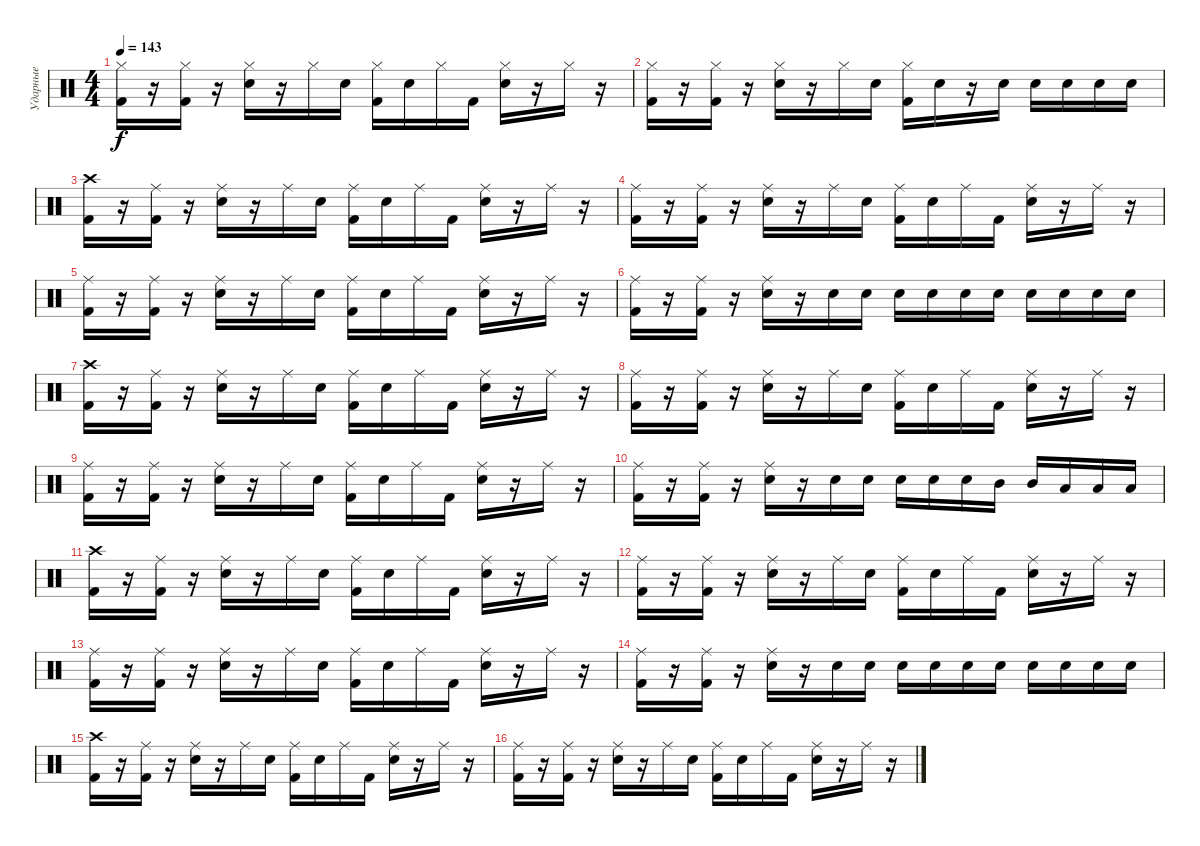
\track ("Ударные" "Ударные") {instrument percussion}
\staff {score}
\articulation defaults
\ts (4 4)
\tempo 143
\clef neutral
\ks c
("Kick (hit) 2" "Hi-Hat (closed)").16{dy f} r.16 ("Kick (hit) 2" "Hi-Hat (closed)").16 r.16 ("Electric Snare (hit)" "Hi-Hat (closed)").16 r.16 "Hi-Hat (closed)".16 "Electric Snare (hit)".16 ("Kick (hit) 2" "Hi-Hat (closed)").16 "Electric Snare (hit)".16 "Hi-Hat (closed)".16 "Kick (hit) 2".16 ("Electric Snare (hit)" "Hi-Hat (closed)").16 r.16 "Hi-Hat (closed)".16 r.16 |
("Kick (hit) 2" "Hi-Hat (closed)").16 r.16 ("Kick (hit) 2" "Hi-Hat (closed)").16 r.16 ("Electric Snare (hit)" "Hi-Hat (closed)").16 r.16 "Hi-Hat (closed)".16 "Electric Snare (hit)".16 ("Kick (hit) 2" "Hi-Hat (closed)").16 "Electric Snare (hit)".16 r.16 "Electric Snare (hit)".16 "Electric Snare (hit)".16 "Electric Snare (hit)".16 "Electric Snare (hit)".16 "Electric Snare (hit)".16 |
("Kick (hit) 2" "Crash high (hit)").16 r.16 ("Kick (hit) 2" "Ride (middle)").16 r.16 ("Electric Snare (hit)" "Ride (middle)").16 r.16 "Ride (middle)".16 "Electric Snare (hit)".16 ("Kick (hit) 2" "Ride (middle)").16 "Electric Snare (hit)".16 "Ride (middle)".16 "Kick (hit) 2".16 ("Electric Snare (hit)" "Ride (middle)").16 r.16 "Ride (middle)".16 r.16 |
("Kick (hit) 2" "Ride (middle)").16 r.16 ("Kick (hit) 2" "Ride (middle)").16 r.16 ("Electric Snare (hit)" "Ride (middle)").16 r.16 "Ride (middle)".16 "Electric Snare (hit)".16 ("Kick (hit) 2" "Ride (middle)").16 "Electric Snare (hit)".16 "Ride (middle)".16 "Kick (hit) 2".16 ("Electric Snare (hit)" "Ride (middle)").16 r.16 "Ride (middle)".16 r.16 |
("Kick (hit) 2" "Ride (middle)").16 r.16 ("Kick (hit) 2" "Ride (middle)").16 r.16 ("Electric Snare (hit)" "Ride (middle)").16 r.16 "Ride (middle)".16 "Electric Snare (hit)".16 ("Kick (hit) 2" "Ride (middle)").16 "Electric Snare (hit)".16 "Ride (middle)".16 "Kick (hit) 2".16 ("Electric Snare (hit)" "Ride (middle)").16 r.16 "Ride (middle)".16 r.16 |
("Kick (hit) 2" "Ride (middle)").16 r.16 ("Kick (hit) 2" "Ride (middle)").16 r.16 ("Electric Snare (hit)" "Ride (middle)").16 r.16 "Electric Snare (hit)".16 "Electric Snare (hit)".16 "Electric Snare (hit)".16 "Electric Snare (hit)".16 "Electric Snare (hit)".16 "Electric Snare (hit)".16 "Electric Snare (hit)".16 "Electric Snare (hit)".16 "Electric Snare (hit)".16 "Electric Snare (hit)".16 |
("Kick (hit) 2" "Crash high (hit)").16 r.16 ("Kick (hit) 2" "Ride (middle)").16 r.16 ("Electric Snare (hit)" "Ride (middle)").16 r.16 "Ride (middle)".16 "Electric Snare (hit)".16 ("Kick (hit) 2" "Ride (middle)").16 "Electric Snare (hit)".16 "Ride (middle)".16 "Kick (hit) 2".16 ("Electric Snare (hit)" "Ride (middle)").16 r.16 "Ride (middle)".16 r.16 |
("Kick (hit) 2" "Ride (middle)").16 r.16 ("Kick (hit) 2" "Ride (middle)").16 r.16 ("Electric Snare (hit)" "Ride (middle)").16 r.16 "Ride (middle)".16 "Electric Snare (hit)".16 ("Kick (hit) 2" "Ride (middle)").16 "Electric Snare (hit)".16 "Ride (middle)".16 "Kick (hit) 2".16 ("Electric Snare (hit)" "Ride (middle)").16 r.16 "Ride (middle)".16 r.16 |
("Kick (hit) 2" "Ride (middle)").16 r.16 ("Kick (hit) 2" "Ride (middle)").16 r.16 ("Electric Snare (hit)" "Ride (middle)").16 r.16 "Ride (middle)".16 "Electric Snare (hit)".16 ("Kick (hit) 2" "Ride (middle)").16 "Electric Snare (hit)".16 "Ride (middle)".16 "Kick (hit) 2".16 ("Electric Snare (hit)" "Ride (middle)").16 r.16 "Ride (middle)".16 r.16 |
("Kick (hit) 2" "Ride (middle)").16 r.16 ("Kick (hit) 2" "Ride (middle)").16 r.16 ("Electric Snare (hit)" "Ride (middle)").16 r.16 "Electric Snare (hit)".16 "Electric Snare (hit)".16 "Electric Snare (hit)".16 "Electric Snare (hit)".16 "Electric Snare (hit)".16 "Mid Tom (hit)".16 "Mid Tom (hit)".16 "Low Tom (hit)".16 "Low Tom (hit)".16 "Low Tom (hit)".16 |
("Kick (hit) 2" "Crash high (hit)").16 r.16 ("Kick (hit) 2" "Ride (middle)").16 r.16 ("Electric Snare (hit)" "Ride (middle)").16 r.16 "Ride (middle)".16 "Electric Snare (hit)".16 ("Kick (hit) 2" "Ride (middle)").16 "Electric Snare (hit)".16 "Ride (middle)".16 "Kick (hit) 2".16 ("Electric Snare (hit)" "Ride (middle)").16 r.16 "Ride (middle)".16 r.16 |
("Kick (hit) 2" "Ride (middle)").16 r.16 ("Kick (hit) 2" "Ride (middle)").16 r.16 ("Electric Snare (hit)" "Ride (middle)").16 r.16 "Ride (middle)".16 "Electric Snare (hit)".16 ("Kick (hit) 2" "Ride (middle)").16 "Electric Snare (hit)".16 "Ride (middle)".16 "Kick (hit) 2".16 ("Electric Snare (hit)" "Ride (middle)").16 r.16 "Ride (middle)".16 r.16 |
("Kick (hit) 2" "Ride (middle)").16 r.16 ("Kick (hit) 2" "Ride (middle)").16 r.16 ("Electric Snare (hit)" "Ride (middle)").16 r.16 "Ride (middle)".16 "Electric Snare (hit)".16 ("Kick (hit) 2" "Ride (middle)").16 "Electric Snare (hit)".16 "Ride (middle)".16 "Kick (hit) 2".16 ("Electric Snare (hit)" "Ride (middle)").16 r.16 "Ride (middle)".16 r.16 |
("Kick (hit) 2" "Ride (middle)").16 r.16 ("Kick (hit) 2" "Ride (middle)").16 r.16 ("Electric Snare (hit)" "Ride (middle)").16 r.16 "Electric Snare (hit)".16 "Electric Snare (hit)".16 "Electric Snare (hit)".16 "Electric Snare (hit)".16 "Electric Snare (hit)".16 "Electric Snare (hit)".16 "Electric Snare (hit)".16 "Electric Snare (hit)".16 "Electric Snare (hit)".16 "Electric Snare (hit)".16 |
("Kick (hit) 2" "Crash high (hit)").16 r.16 ("Kick (hit) 2" "Ride (middle)").16 r.16 ("Electric Snare (hit)" "Ride (middle)").16 r.16 "Ride (middle)".16 "Electric Snare (hit)".16 ("Kick (hit) 2" "Ride (middle)").16 "Electric Snare (hit)".16 "Ride (middle)".16 "Kick (hit) 2".16 ("Electric Snare (hit)" "Ride (middle)").16 r.16 "Ride (middle)".16 r.16 |
("Kick (hit) 2" "Ride (middle)").16 r.16 ("Kick (hit) 2" "Ride (middle)").16 r.16 ("Electric Snare (hit)" "Ride (middle)").16 r.16 "Ride (middle)".16 "Electric Snare (hit)".16 ("Kick (hit) 2" "Ride (middle)").16 "Electric Snare (hit)".16 "Ride (middle)".16 "Kick (hit) 2".16 ("Electric Snare (hit)" "Ride (middle)").16 r.16 "Ride (middle)".16 r.16
